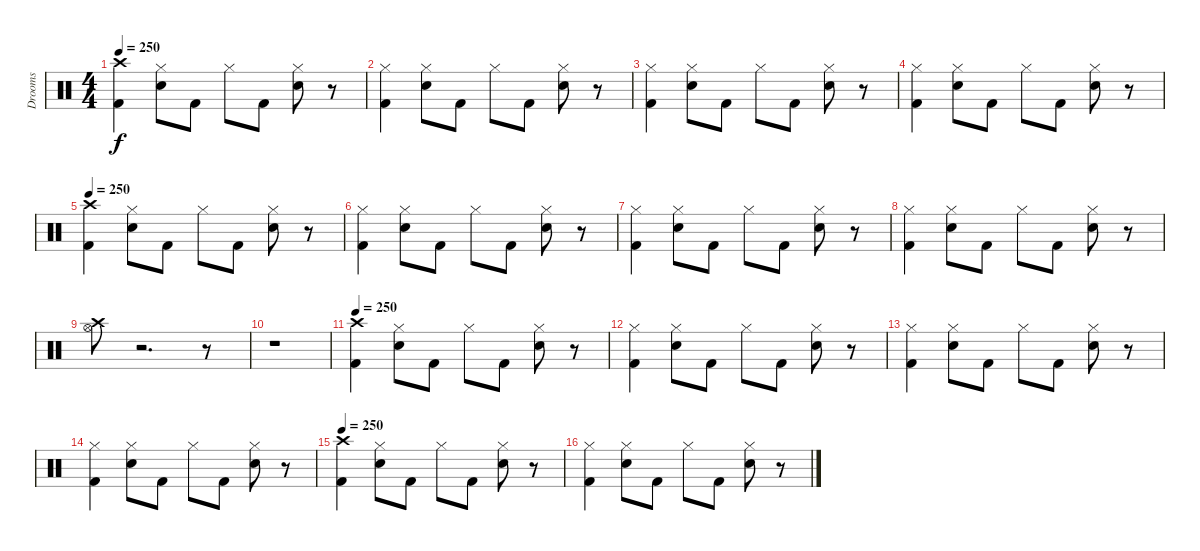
\track ("Drooms" "Drooms") {instrument percussion}
\staff {score}
\articulation defaults
\ts (4 4)
\tempo 250
\clef neutral
\ks c
("Crash high (hit)" "Kick (hit) 2").4{dy f} ("Hi-Hat (closed)" "Snare (hit) 2").8 "Kick (hit) 2".8 "Hi-Hat (closed)".8 "Kick (hit) 2".8 ("Hi-Hat (closed)" "Snare (hit) 2").8 r.8 |
("Hi-Hat (closed)" "Kick (hit) 2").4 ("Hi-Hat (closed)" "Snare (hit) 2").8 "Kick (hit) 2".8 "Hi-Hat (closed)".8 "Kick (hit) 2".8 ("Hi-Hat (closed)" "Snare (hit) 2").8 r.8 |
("Hi-Hat (closed)" "Kick (hit) 2").4 ("Hi-Hat (closed)" "Snare (hit) 2").8 "Kick (hit) 2".8 "Hi-Hat (closed)".8 "Kick (hit) 2".8 ("Hi-Hat (closed)" "Snare (hit) 2").8 r.8 |
("Hi-Hat (closed)" "Kick (hit) 2").4 ("Hi-Hat (closed)" "Snare (hit) 2").8 "Kick (hit) 2".8 "Hi-Hat (closed)".8 "Kick (hit) 2".8 ("Hi-Hat (closed)" "Snare (hit) 2").8 r.8 |
\tempo 250
("Crash high (hit)" "Kick (hit) 2").4 ("Hi-Hat (closed)" "Snare (hit) 2").8 "Kick (hit) 2".8 "Hi-Hat (closed)".8 "Kick (hit) 2".8 ("Hi-Hat (closed)" "Snare (hit) 2").8 r.8 |
("Hi-Hat (closed)" "Kick (hit) 2").4 ("Hi-Hat (closed)" "Snare (hit) 2").8 "Kick (hit) 2".8 "Hi-Hat (closed)".8 "Kick (hit) 2".8 ("Hi-Hat (closed)" "Snare (hit) 2").8 r.8 |
("Hi-Hat (closed)" "Kick (hit) 2").4 ("Hi-Hat (closed)" "Snare (hit) 2").8 "Kick (hit) 2".8 "Hi-Hat (closed)".8 "Kick (hit) 2".8 ("Hi-Hat (closed)" "Snare (hit) 2").8 r.8 |
("Hi-Hat (closed)" "Kick (hit) 2").4 ("Hi-Hat (closed)" "Snare (hit) 2").8 "Kick (hit) 2".8 "Hi-Hat (closed)".8 "Kick (hit) 2".8 ("Hi-Hat (closed)" "Snare (hit) 2").8 r.8 |
("Hi-Hat (open)" "Crash high (hit)").8 r.2{d} r.8 |
r.1 |
\tempo 250
("Crash high (hit)" "Kick (hit) 2").4 ("Hi-Hat (closed)" "Snare (hit) 2").8 "Kick (hit) 2".8 "Hi-Hat (closed)".8 "Kick (hit) 2".8 ("Hi-Hat (closed)" "Snare (hit) 2").8 r.8 |
("Hi-Hat (closed)" "Kick (hit) 2").4 ("Hi-Hat (closed)" "Snare (hit) 2").8 "Kick (hit) 2".8 "Hi-Hat (closed)".8 "Kick (hit) 2".8 ("Hi-Hat (closed)" "Snare (hit) 2").8 r.8 |
("Hi-Hat (closed)" "Kick (hit) 2").4 ("Hi-Hat (closed)" "Snare (hit) 2").8 "Kick (hit) 2".8 "Hi-Hat (closed)".8 "Kick (hit) 2".8 ("Hi-Hat (closed)" "Snare (hit) 2").8 r.8 |
("Hi-Hat (closed)" "Kick (hit) 2").4 ("Hi-Hat (closed)" "Snare (hit) 2").8 "Kick (hit) 2".8 "Hi-Hat (closed)".8 "Kick (hit) 2".8 ("Hi-Hat (closed)" "Snare (hit) 2").8 r.8 |
\tempo 250
("Crash high (hit)" "Kick (hit) 2").4 ("Hi-Hat (closed)" "Snare (hit) 2").8 "Kick (hit) 2".8 "Hi-Hat (closed)".8 "Kick (hit) 2".8 ("Hi-Hat (closed)" "Snare (hit) 2").8 r.8 |
("Hi-Hat (closed)" "Kick (hit) 2").4 ("Hi-Hat (closed)" "Snare (hit) 2").8 "Kick (hit) 2".8 "Hi-Hat (closed)".8 "Kick (hit) 2".8 ("Hi-Hat (closed)" "Snare (hit) 2").8 r.8
